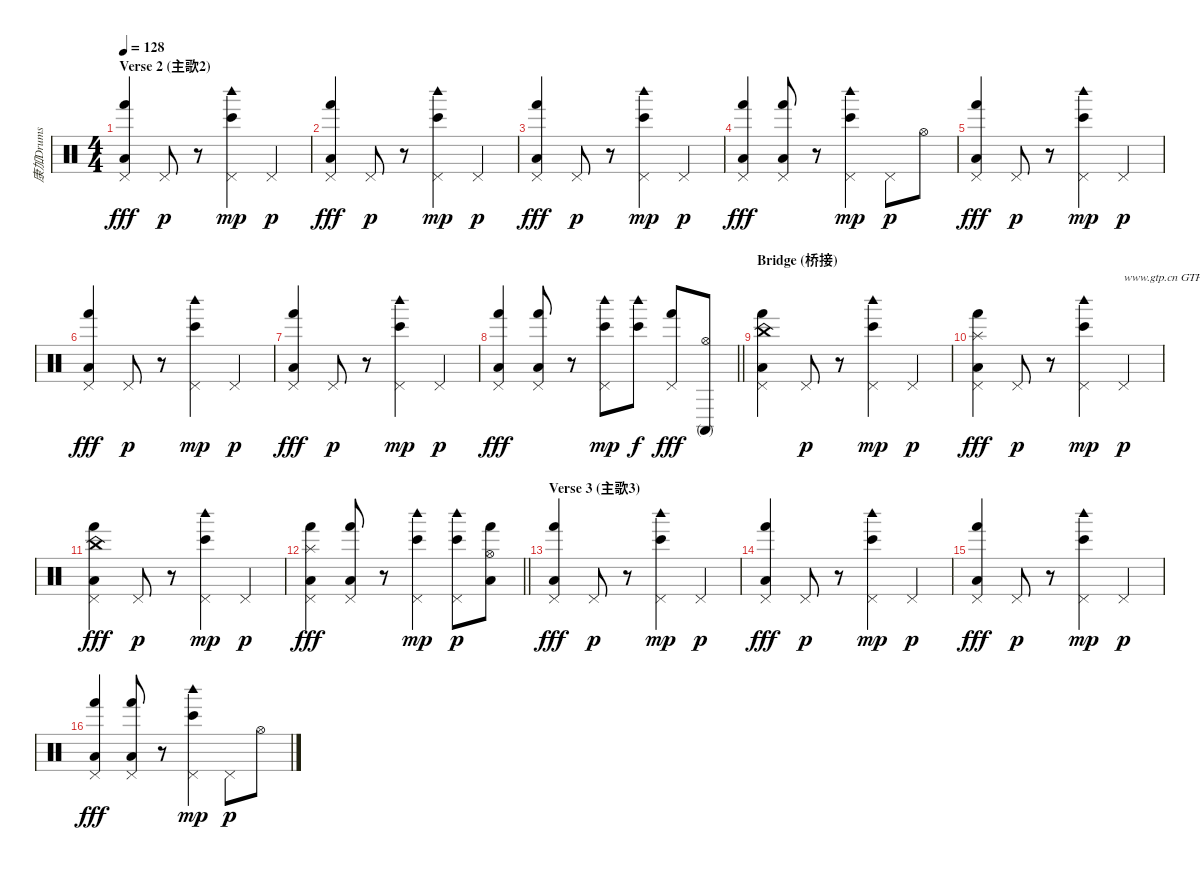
\track ("康加Drums" "康加Drums") {instrument percussion}
\staff {score}
\articulation defaults
\ts (4 4)
\section ("" "Verse 2 (主歌2)")
\tempo 128
\clef neutral
\ks c
("Pedal Hi-Hat (hit)" "Hand (hit)" "Low Floor Tom (hit)").4{dy fff} "Pedal Hi-Hat (hit)".8{dy p} r.8 ("Bongo High (hit)" "Woodblock high (hit)" "Pedal Hi-Hat (hit)").4{dy mp} "Pedal Hi-Hat (hit)".4{dy p} |
("Pedal Hi-Hat (hit)" "Hand (hit)" "Low Floor Tom (hit)").4{dy fff} "Pedal Hi-Hat (hit)".8{dy p} r.8 ("Bongo High (hit)" "Woodblock high (hit)" "Pedal Hi-Hat (hit)").4{dy mp} "Pedal Hi-Hat (hit)".4{dy p} |
("Pedal Hi-Hat (hit)" "Hand (hit)" "Low Floor Tom (hit)").4{dy fff} "Pedal Hi-Hat (hit)".8{dy p} r.8 ("Bongo High (hit)" "Woodblock high (hit)" "Pedal Hi-Hat (hit)").4{dy mp} "Pedal Hi-Hat (hit)".4{dy p} |
("Pedal Hi-Hat (hit)" "Hand (hit)" "Low Floor Tom (hit)").4{dy fff} ("Pedal Hi-Hat (hit)" "Hand (hit)" "Low Floor Tom (hit)").8 r.8 ("Bongo High (hit)" "Woodblock high (hit)" "Pedal Hi-Hat (hit)").4{dy mp} "Pedal Hi-Hat (hit)".8{dy p} "Hi-Hat (open)".8 |
("Pedal Hi-Hat (hit)" "Hand (hit)" "Low Floor Tom (hit)").4{dy fff} "Pedal Hi-Hat (hit)".8{dy p} r.8 ("Bongo High (hit)" "Woodblock high (hit)" "Pedal Hi-Hat (hit)").4{dy mp} "Pedal Hi-Hat (hit)".4{dy p} |
("Pedal Hi-Hat (hit)" "Hand (hit)" "Low Floor Tom (hit)").4{dy fff} "Pedal Hi-Hat (hit)".8{dy p} r.8 ("Bongo High (hit)" "Woodblock high (hit)" "Pedal Hi-Hat (hit)").4{dy mp} "Pedal Hi-Hat (hit)".4{dy p} |
("Pedal Hi-Hat (hit)" "Hand (hit)" "Low Floor Tom (hit)").4{dy fff} "Pedal Hi-Hat (hit)".8{dy p} r.8 ("Bongo High (hit)" "Woodblock high (hit)" "Pedal Hi-Hat (hit)").4{dy mp} "Pedal Hi-Hat (hit)".4{dy p} |
\barLineRight lightlight
("Pedal Hi-Hat (hit)" "Hand (hit)" "Low Floor Tom (hit)").4{dy fff} ("Pedal Hi-Hat (hit)" "Hand (hit)" "Low Floor Tom (hit)").8 r.8 ("Bongo High (hit)" "Woodblock high (hit)" "Pedal Hi-Hat (hit)").8{dy mp} ("Bongo High (hit)" "Woodblock high (hit)").8{dy f} ("Pedal Hi-Hat (hit)" "Hand (hit)").8{dy fff} ("Hi-Hat (open)" "Conga high (mute)").8 |
\section ("" "Bridge (桥接)")
("China (hit)" "Pedal Hi-Hat (hit)" "Hand (hit)" "Low Floor Tom (hit)").4 "Pedal Hi-Hat (hit)".8{dy p} r.8 ("Bongo High (hit)" "Woodblock high (hit)" "Pedal Hi-Hat (hit)").4{dy mp} "Pedal Hi-Hat (hit)".4{dy p} |
("Splash (hit)" "Pedal Hi-Hat (hit)" "Hand (hit)" "Low Floor Tom (hit)").4{dy fff} "Pedal Hi-Hat (hit)".8{dy p} r.8 ("Bongo High (hit)" "Woodblock high (hit)" "Pedal Hi-Hat (hit)").4{dy mp} "Pedal Hi-Hat (hit)".4{txt "www.gtp.cn GTP中文娱乐网为您提供优秀的谱子" dy p} |
("China (hit)" "Pedal Hi-Hat (hit)" "Hand (hit)" "Low Floor Tom (hit)").4{dy fff} "Pedal Hi-Hat (hit)".8{dy p} r.8 ("Bongo High (hit)" "Woodblock high (hit)" "Pedal Hi-Hat (hit)").4{dy mp} "Pedal Hi-Hat (hit)".4{dy p} |
\barLineRight lightlight
("Splash (hit)" "Pedal Hi-Hat (hit)" "Hand (hit)" "Low Floor Tom (hit)").4{dy fff} ("Pedal Hi-Hat (hit)" "Hand (hit)" "Low Floor Tom (hit)").8 r.8 ("Bongo High (hit)" "Woodblock high (hit)" "Pedal Hi-Hat (hit)").4{dy mp} ("Bongo High (hit)" "Woodblock high (hit)" "Pedal Hi-Hat (hit)").8{dy p} ("Hi-Hat (open)" "Hand (hit)" "Low Floor Tom (hit)").8 |
\section ("" "Verse 3 (主歌3)")
("Pedal Hi-Hat (hit)" "Hand (hit)" "Low Floor Tom (hit)").4{dy fff} "Pedal Hi-Hat (hit)".8{dy p} r.8 ("Bongo High (hit)" "Woodblock high (hit)" "Pedal Hi-Hat (hit)").4{dy mp} "Pedal Hi-Hat (hit)".4{dy p} |
("Pedal Hi-Hat (hit)" "Hand (hit)" "Low Floor Tom (hit)").4{dy fff} "Pedal Hi-Hat (hit)".8{dy p} r.8 ("Bongo High (hit)" "Woodblock high (hit)" "Pedal Hi-Hat (hit)").4{dy mp} "Pedal Hi-Hat (hit)".4{dy p} |
("Pedal Hi-Hat (hit)" "Hand (hit)" "Low Floor Tom (hit)").4{dy fff} "Pedal Hi-Hat (hit)".8{dy p} r.8 ("Bongo High (hit)" "Woodblock high (hit)" "Pedal Hi-Hat (hit)").4{dy mp} "Pedal Hi-Hat (hit)".4{dy p} |
("Pedal Hi-Hat (hit)" "Hand (hit)" "Low Floor Tom (hit)").4{dy fff} ("Pedal Hi-Hat (hit)" "Hand (hit)" "Low Floor Tom (hit)").8 r.8 ("Bongo High (hit)" "Woodblock high (hit)" "Pedal Hi-Hat (hit)").4{dy mp} "Pedal Hi-Hat (hit)".8{dy p} "Hi-Hat (open)".8
